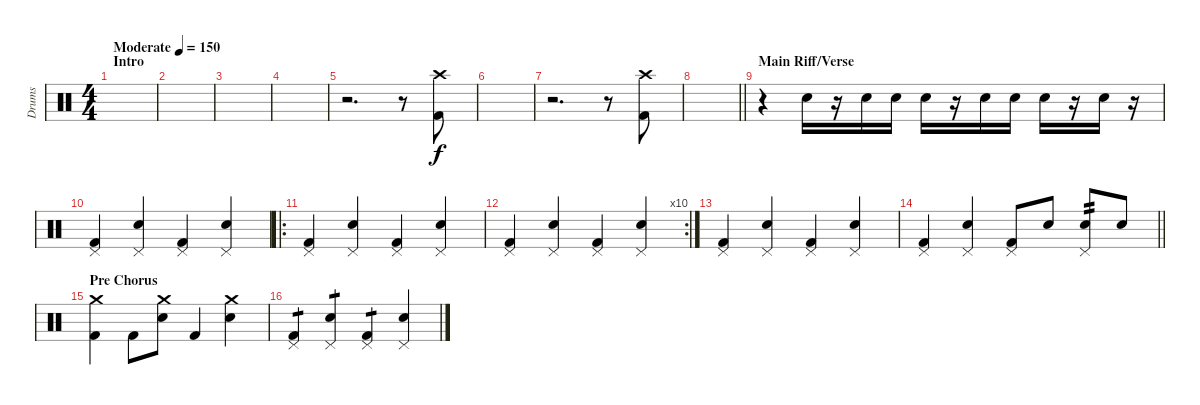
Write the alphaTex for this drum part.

\track ("Drums" "Drums") {instrument percussion}
\staff {score}
\articulation defaults
\ts (4 4)
\section ("" "Intro")
\tempo (150 "Moderate")
\clef neutral
\ks c
|
|
|
|
r.2{d} r.8 ("Crash high (hit)" "Kick (hit) 2").8 |
|
r.2{d} r.8 ("Crash high (hit)" "Kick (hit) 2").8 |
\barLineRight lightlight
|
\section ("" "Main Riff/Verse")
r.4 "Snare (hit) 2".16 r.16 "Snare (hit) 2".16 "Snare (hit) 2".16 "Snare (hit) 2".16 r.16 "Snare (hit) 2".16 "Snare (hit) 2".16 "Snare (hit) 2".16 r.16 "Snare (hit) 2".16 r.16 |
("Kick (hit) 2" "Pedal Hi-Hat (hit)").4 ("Snare (hit) 2" "Pedal Hi-Hat (hit)").4 ("Kick (hit) 2" "Pedal Hi-Hat (hit)").4 ("Snare (hit) 2" "Pedal Hi-Hat (hit)").4 |
\ro
("Kick (hit) 2" "Pedal Hi-Hat (hit)").4 ("Snare (hit) 2" "Pedal Hi-Hat (hit)").4 ("Kick (hit) 2" "Pedal Hi-Hat (hit)").4 ("Snare (hit) 2" "Pedal Hi-Hat (hit)").4 |
\rc 10
("Kick (hit) 2" "Pedal Hi-Hat (hit)").4 ("Snare (hit) 2" "Pedal Hi-Hat (hit)").4 ("Kick (hit) 2" "Pedal Hi-Hat (hit)").4 ("Snare (hit) 2" "Pedal Hi-Hat (hit)").4 |
("Kick (hit) 2" "Pedal Hi-Hat (hit)").4 ("Snare (hit) 2" "Pedal Hi-Hat (hit)").4 ("Kick (hit) 2" "Pedal Hi-Hat (hit)").4 ("Snare (hit) 2" "Pedal Hi-Hat (hit)").4 |
\barLineRight lightlight
("Kick (hit) 2" "Pedal Hi-Hat (hit)").4 ("Snare (hit) 2" "Pedal Hi-Hat (hit)").4 ("Kick (hit) 2" "Pedal Hi-Hat (hit)").8 "Snare (hit) 2".8 ("Snare (hit) 2" "Pedal Hi-Hat (hit)").8{tp 2} "Snare (hit) 2".8 |
\section ("" "Pre Chorus")
("Kick (hit) 2" "Crash medium (hit)").4 "Kick (hit) 2".8 ("Snare (hit) 2" "Crash medium (hit)").8 "Kick (hit) 2".4 ("Snare (hit) 2" "Crash medium (hit)").4 |
("Kick (hit) 2" "Pedal Hi-Hat (hit)").4{tp 1} ("Snare (hit) 2" "Pedal Hi-Hat (hit)").4{tp 1} ("Kick (hit) 2" "Pedal Hi-Hat (hit)").4{tp 1} ("Snare (hit) 2" "Pedal Hi-Hat (hit)").4
